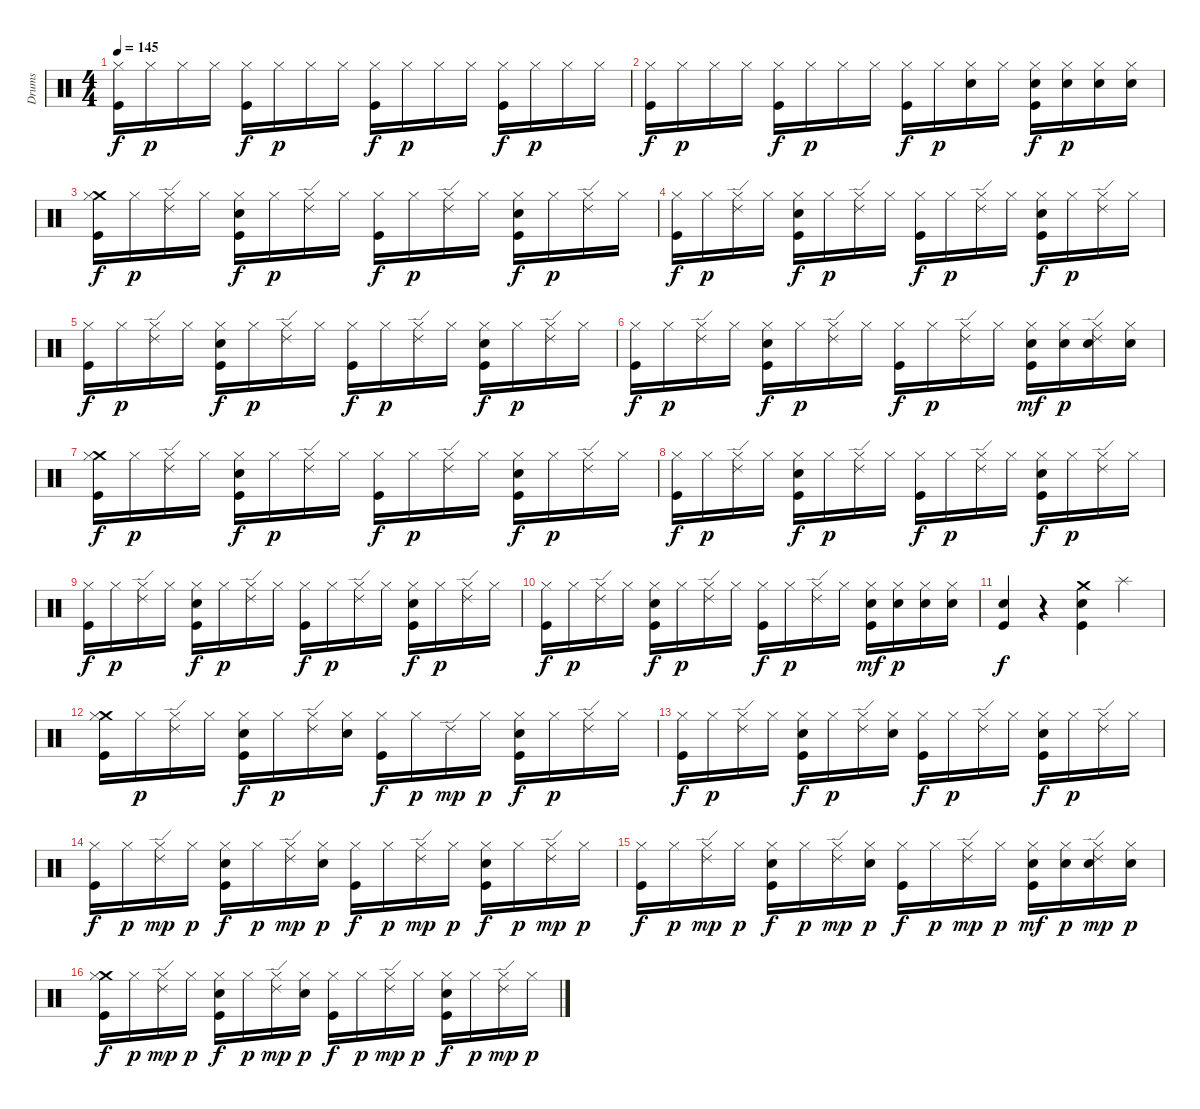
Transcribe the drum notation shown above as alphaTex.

\track ("Drums" "Drums") {instrument percussion}
\staff {score}
\articulation defaults
\ts (4 4)
\tempo 145
\clef neutral
\ks c
("Kick (hit)" "Hi-Hat (closed)").16{dy f} "Hi-Hat (closed)".16{dy p} "Hi-Hat (closed)".16 "Hi-Hat (closed)".16 ("Kick (hit)" "Hi-Hat (closed)").16{dy f} "Hi-Hat (closed)".16{dy p} "Hi-Hat (closed)".16 "Hi-Hat (closed)".16 ("Kick (hit)" "Hi-Hat (closed)").16{dy f} "Hi-Hat (closed)".16{dy p} "Hi-Hat (closed)".16 "Hi-Hat (closed)".16 ("Kick (hit)" "Hi-Hat (closed)").16{dy f} "Hi-Hat (closed)".16{dy p} "Hi-Hat (closed)".16 "Hi-Hat (closed)".16 |
("Kick (hit)" "Hi-Hat (closed)").16{dy f} "Hi-Hat (closed)".16{dy p} "Hi-Hat (closed)".16 "Hi-Hat (closed)".16 ("Kick (hit)" "Hi-Hat (closed)").16{dy f} "Hi-Hat (closed)".16{dy p} "Hi-Hat (closed)".16 "Hi-Hat (closed)".16 ("Kick (hit)" "Hi-Hat (closed)").16{dy f} "Hi-Hat (closed)".16{dy p} ("Hi-Hat (closed)" "Electric Snare (hit)").16 "Hi-Hat (closed)".16 ("Kick (hit)" "Hi-Hat (closed)" "Electric Snare (hit)").16{dy f} ("Hi-Hat (closed)" "Electric Snare (hit)").16{dy p} ("Hi-Hat (closed)" "Electric Snare (hit)").16 ("Hi-Hat (closed)" "Electric Snare (hit)").16 |
("Crash medium (hit)" "Kick (hit)" "Hi-Hat (closed)").16{dy f} "Hi-Hat (closed)".16{dy p} ("Ride (edge) 2" "Hi-Hat (closed)").16 "Hi-Hat (closed)".16 ("Electric Snare (hit)" "Kick (hit)" "Hi-Hat (closed)").16{dy f} "Hi-Hat (closed)".16{dy p} ("Ride (edge) 2" "Hi-Hat (closed)").16 "Hi-Hat (closed)".16 ("Kick (hit)" "Hi-Hat (closed)").16{dy f} "Hi-Hat (closed)".16{dy p} ("Ride (edge) 2" "Hi-Hat (closed)").16 "Hi-Hat (closed)".16 ("Electric Snare (hit)" "Kick (hit)" "Hi-Hat (closed)").16{dy f} "Hi-Hat (closed)".16{dy p} ("Ride (edge) 2" "Hi-Hat (closed)").16 "Hi-Hat (closed)".16 |
("Kick (hit)" "Hi-Hat (closed)").16{dy f} "Hi-Hat (closed)".16{dy p} ("Ride (edge) 2" "Hi-Hat (closed)").16 "Hi-Hat (closed)".16 ("Electric Snare (hit)" "Kick (hit)" "Hi-Hat (closed)").16{dy f} "Hi-Hat (closed)".16{dy p} ("Ride (edge) 2" "Hi-Hat (closed)").16 "Hi-Hat (closed)".16 ("Kick (hit)" "Hi-Hat (closed)").16{dy f} "Hi-Hat (closed)".16{dy p} ("Ride (edge) 2" "Hi-Hat (closed)").16 "Hi-Hat (closed)".16 ("Electric Snare (hit)" "Kick (hit)" "Hi-Hat (closed)").16{dy f} "Hi-Hat (closed)".16{dy p} ("Ride (edge) 2" "Hi-Hat (closed)").16 "Hi-Hat (closed)".16 |
("Kick (hit)" "Hi-Hat (closed)").16{dy f} "Hi-Hat (closed)".16{dy p} ("Ride (edge) 2" "Hi-Hat (closed)").16 "Hi-Hat (closed)".16 ("Electric Snare (hit)" "Kick (hit)" "Hi-Hat (closed)").16{dy f} "Hi-Hat (closed)".16{dy p} ("Ride (edge) 2" "Hi-Hat (closed)").16 "Hi-Hat (closed)".16 ("Kick (hit)" "Hi-Hat (closed)").16{dy f} "Hi-Hat (closed)".16{dy p} ("Ride (edge) 2" "Hi-Hat (closed)").16 "Hi-Hat (closed)".16 ("Electric Snare (hit)" "Kick (hit)" "Hi-Hat (closed)").16{dy f} "Hi-Hat (closed)".16{dy p} ("Ride (edge) 2" "Hi-Hat (closed)").16 "Hi-Hat (closed)".16 |
("Kick (hit)" "Hi-Hat (closed)").16{dy f} "Hi-Hat (closed)".16{dy p} ("Ride (edge) 2" "Hi-Hat (closed)").16 "Hi-Hat (closed)".16 ("Electric Snare (hit)" "Kick (hit)" "Hi-Hat (closed)").16{dy f} "Hi-Hat (closed)".16{dy p} ("Ride (edge) 2" "Hi-Hat (closed)").16 "Hi-Hat (closed)".16 ("Kick (hit)" "Hi-Hat (closed)").16{dy f} "Hi-Hat (closed)".16{dy p} ("Ride (edge) 2" "Hi-Hat (closed)").16 "Hi-Hat (closed)".16 ("Electric Snare (hit)" "Kick (hit)" "Hi-Hat (closed)").16{dy mf} ("Electric Snare (hit)" "Hi-Hat (closed)").16{dy p} ("Electric Snare (hit)" "Ride (edge) 2" "Hi-Hat (closed)").16 ("Electric Snare (hit)" "Hi-Hat (closed)").16 |
("Crash medium (hit)" "Kick (hit)" "Hi-Hat (closed)").16{dy f} "Hi-Hat (closed)".16{dy p} ("Ride (edge) 2" "Hi-Hat (closed)").16 "Hi-Hat (closed)".16 ("Electric Snare (hit)" "Kick (hit)" "Hi-Hat (closed)").16{dy f} "Hi-Hat (closed)".16{dy p} ("Ride (edge) 2" "Hi-Hat (closed)").16 "Hi-Hat (closed)".16 ("Kick (hit)" "Hi-Hat (closed)").16{dy f} "Hi-Hat (closed)".16{dy p} ("Ride (edge) 2" "Hi-Hat (closed)").16 "Hi-Hat (closed)".16 ("Electric Snare (hit)" "Kick (hit)" "Hi-Hat (closed)").16{dy f} "Hi-Hat (closed)".16{dy p} ("Ride (edge) 2" "Hi-Hat (closed)").16 "Hi-Hat (closed)".16 |
("Kick (hit)" "Hi-Hat (closed)").16{dy f} "Hi-Hat (closed)".16{dy p} ("Ride (edge) 2" "Hi-Hat (closed)").16 "Hi-Hat (closed)".16 ("Electric Snare (hit)" "Kick (hit)" "Hi-Hat (closed)").16{dy f} "Hi-Hat (closed)".16{dy p} ("Ride (edge) 2" "Hi-Hat (closed)").16 "Hi-Hat (closed)".16 ("Kick (hit)" "Hi-Hat (closed)").16{dy f} "Hi-Hat (closed)".16{dy p} ("Ride (edge) 2" "Hi-Hat (closed)").16 "Hi-Hat (closed)".16 ("Electric Snare (hit)" "Kick (hit)" "Hi-Hat (closed)").16{dy f} "Hi-Hat (closed)".16{dy p} ("Ride (edge) 2" "Hi-Hat (closed)").16 "Hi-Hat (closed)".16 |
("Kick (hit)" "Hi-Hat (closed)").16{dy f} "Hi-Hat (closed)".16{dy p} ("Ride (edge) 2" "Hi-Hat (closed)").16 "Hi-Hat (closed)".16 ("Electric Snare (hit)" "Kick (hit)" "Hi-Hat (closed)").16{dy f} "Hi-Hat (closed)".16{dy p} ("Ride (edge) 2" "Hi-Hat (closed)").16 "Hi-Hat (closed)".16 ("Kick (hit)" "Hi-Hat (closed)").16{dy f} "Hi-Hat (closed)".16{dy p} ("Ride (edge) 2" "Hi-Hat (closed)").16 "Hi-Hat (closed)".16 ("Electric Snare (hit)" "Kick (hit)" "Hi-Hat (closed)").16{dy f} "Hi-Hat (closed)".16{dy p} ("Ride (edge) 2" "Hi-Hat (closed)").16 "Hi-Hat (closed)".16 |
("Kick (hit)" "Hi-Hat (closed)").16{dy f} "Hi-Hat (closed)".16{dy p} ("Ride (edge) 2" "Hi-Hat (closed)").16 "Hi-Hat (closed)".16 ("Electric Snare (hit)" "Kick (hit)" "Hi-Hat (closed)").16{dy f} "Hi-Hat (closed)".16{dy p} ("Ride (edge) 2" "Hi-Hat (closed)").16 "Hi-Hat (closed)".16 ("Kick (hit)" "Hi-Hat (closed)").16{dy f} "Hi-Hat (closed)".16{dy p} ("Ride (edge) 2" "Hi-Hat (closed)").16 "Hi-Hat (closed)".16 ("Electric Snare (hit)" "Kick (hit)" "Hi-Hat (closed)").16{dy mf} ("Electric Snare (hit)" "Hi-Hat (closed)").16{dy p} ("Electric Snare (hit)" "Hi-Hat (closed)").16 ("Electric Snare (hit)" "Hi-Hat (closed)").16 |
("Electric Snare (hit)" "Kick (hit)").4{dy f} r.4 ("Crash medium (hit)" "Kick (hit)" "Electric Snare (hit)").4 "Splash (hit)".4 |
("Crash medium (hit)" "Kick (hit)" "Hi-Hat (closed)").16 "Hi-Hat (closed)".16{dy p} ("Ride (edge) 2" "Hi-Hat (closed)").16 "Hi-Hat (closed)".16 ("Electric Snare (hit)" "Kick (hit)" "Hi-Hat (closed)").16{dy f} "Hi-Hat (closed)".16{dy p} ("Ride (edge) 2" "Hi-Hat (closed)").16 ("Electric Snare (hit)" "Hi-Hat (closed)").16 ("Kick (hit)" "Hi-Hat (closed)").16{dy f} "Hi-Hat (closed)".16{dy p} "Ride (edge) 2".16{dy mp} "Hi-Hat (closed)".16{dy p} ("Electric Snare (hit)" "Kick (hit)" "Hi-Hat (closed)").16{dy f} "Hi-Hat (closed)".16{dy p} ("Ride (edge) 2" "Hi-Hat (closed)").16 "Hi-Hat (closed)".16 |
("Kick (hit)" "Hi-Hat (closed)").16{dy f} "Hi-Hat (closed)".16{dy p} ("Ride (edge) 2" "Hi-Hat (closed)").16 "Hi-Hat (closed)".16 ("Electric Snare (hit)" "Kick (hit)" "Hi-Hat (closed)").16{dy f} "Hi-Hat (closed)".16{dy p} ("Ride (edge) 2" "Hi-Hat (closed)").16 ("Electric Snare (hit)" "Hi-Hat (closed)").16 ("Kick (hit)" "Hi-Hat (closed)").16{dy f} "Hi-Hat (closed)".16{dy p} ("Ride (edge) 2" "Hi-Hat (closed)").16 "Hi-Hat (closed)".16 ("Electric Snare (hit)" "Kick (hit)" "Hi-Hat (closed)").16{dy f} "Hi-Hat (closed)".16{dy p} ("Ride (edge) 2" "Hi-Hat (closed)").16 "Hi-Hat (closed)".16 |
("Kick (hit)" "Hi-Hat (closed)").16{dy f} "Hi-Hat (closed)".16{dy p} ("Hi-Hat (closed)" "Ride (edge) 2").16{dy mp} "Hi-Hat (closed)".16{dy p} ("Electric Snare (hit)" "Kick (hit)" "Hi-Hat (closed)").16{dy f} "Hi-Hat (closed)".16{dy p} ("Hi-Hat (closed)" "Ride (edge) 2").16{dy mp} ("Electric Snare (hit)" "Hi-Hat (closed)").16{dy p} ("Kick (hit)" "Hi-Hat (closed)").16{dy f} "Hi-Hat (closed)".16{dy p} ("Hi-Hat (closed)" "Ride (edge) 2").16{dy mp} "Hi-Hat (closed)".16{dy p} ("Electric Snare (hit)" "Kick (hit)" "Hi-Hat (closed)").16{dy f} "Hi-Hat (closed)".16{dy p} ("Hi-Hat (closed)" "Ride (edge) 2").16{dy mp} "Hi-Hat (closed)".16{dy p} |
("Kick (hit)" "Hi-Hat (closed)").16{dy f} "Hi-Hat (closed)".16{dy p} ("Hi-Hat (closed)" "Ride (edge) 2").16{dy mp} "Hi-Hat (closed)".16{dy p} ("Electric Snare (hit)" "Kick (hit)" "Hi-Hat (closed)").16{dy f} "Hi-Hat (closed)".16{dy p} ("Hi-Hat (closed)" "Ride (edge) 2").16{dy mp} ("Electric Snare (hit)" "Hi-Hat (closed)").16{dy p} ("Kick (hit)" "Hi-Hat (closed)").16{dy f} "Hi-Hat (closed)".16{dy p} ("Hi-Hat (closed)" "Ride (edge) 2").16{dy mp} "Hi-Hat (closed)".16{dy p} ("Electric Snare (hit)" "Kick (hit)" "Hi-Hat (closed)").16{dy mf} ("Electric Snare (hit)" "Hi-Hat (closed)").16{dy p} ("Electric Snare (hit)" "Hi-Hat (closed)" "Ride (edge) 2").16{dy mp} ("Electric Snare (hit)" "Hi-Hat (closed)").16{dy p} |
("Crash medium (hit)" "Kick (hit)" "Hi-Hat (closed)").16{dy f} "Hi-Hat (closed)".16{dy p} ("Hi-Hat (closed)" "Ride (edge) 2").16{dy mp} "Hi-Hat (closed)".16{dy p} ("Electric Snare (hit)" "Kick (hit)" "Hi-Hat (closed)").16{dy f} "Hi-Hat (closed)".16{dy p} ("Hi-Hat (closed)" "Ride (edge) 2").16{dy mp} ("Electric Snare (hit)" "Hi-Hat (closed)").16{dy p} ("Kick (hit)" "Hi-Hat (closed)").16{dy f} "Hi-Hat (closed)".16{dy p} ("Hi-Hat (closed)" "Ride (edge) 2").16{dy mp} "Hi-Hat (closed)".16{dy p} ("Electric Snare (hit)" "Kick (hit)" "Hi-Hat (closed)").16{dy f} "Hi-Hat (closed)".16{dy p} ("Hi-Hat (closed)" "Ride (edge) 2").16{dy mp} "Hi-Hat (closed)".16{dy p}
